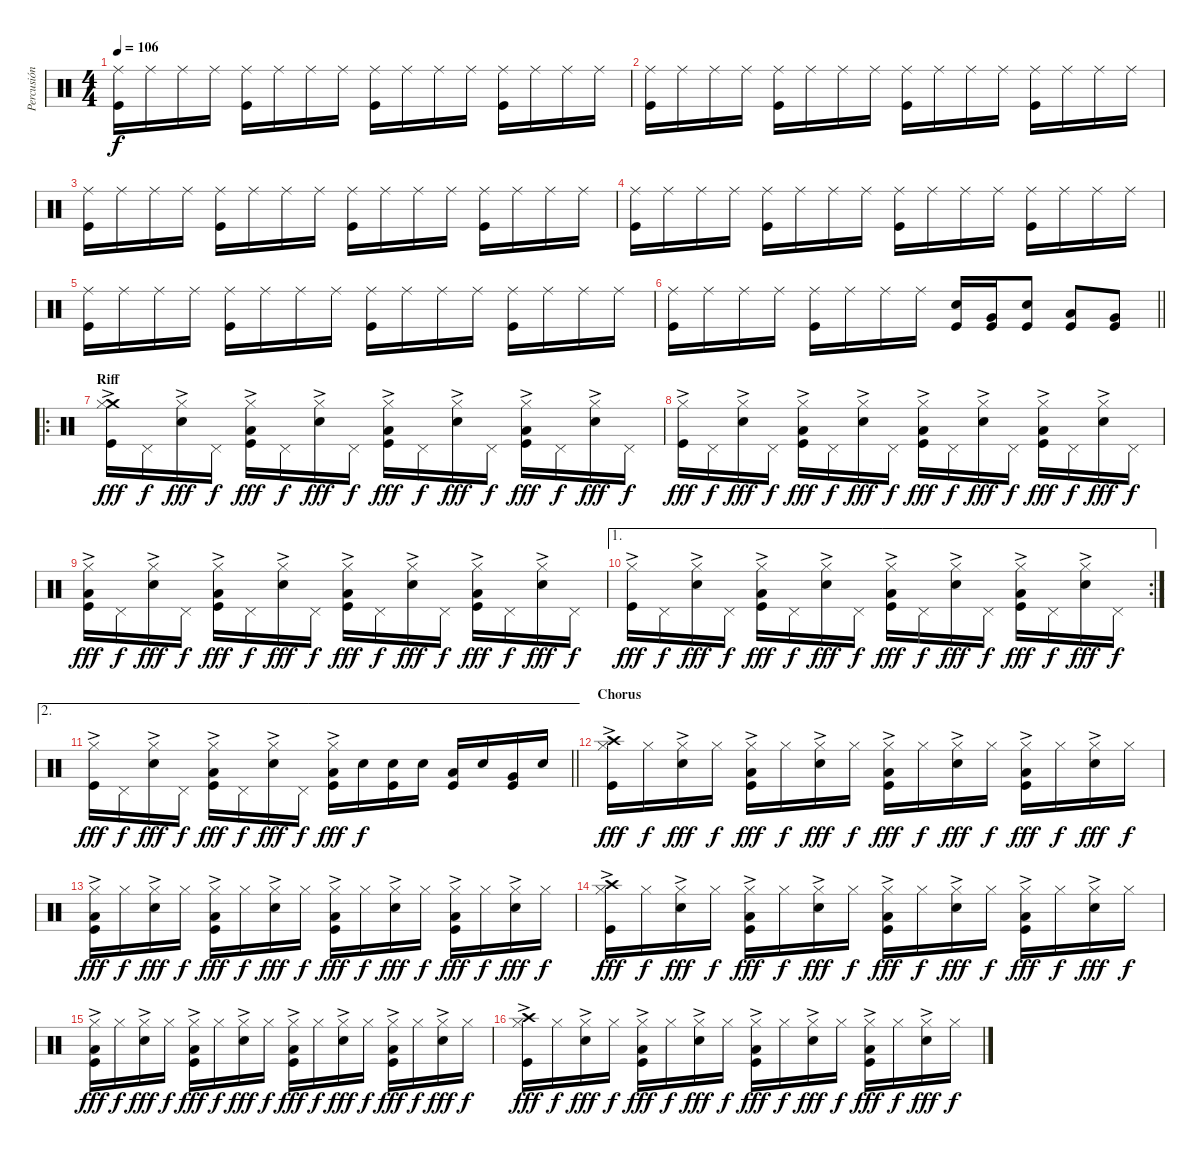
\track ("Percusión" "Percusión") {instrument percussion}
\staff {score}
\articulation defaults
\ts (4 4)
\tempo 106
\clef neutral
\ks c
("Ride (middle)" "Kick (hit)").16{dy f} "Ride (middle)".16 "Ride (middle)".16 "Ride (middle)".16 ("Ride (middle)" "Kick (hit)").16 "Ride (middle)".16 "Ride (middle)".16 "Ride (middle)".16 ("Ride (middle)" "Kick (hit)").16 "Ride (middle)".16 "Ride (middle)".16 "Ride (middle)".16 ("Ride (middle)" "Kick (hit)").16 "Ride (middle)".16 "Ride (middle)".16 "Ride (middle)".16 |
("Ride (middle)" "Kick (hit)").16 "Ride (middle)".16 "Ride (middle)".16 "Ride (middle)".16 ("Ride (middle)" "Kick (hit)").16 "Ride (middle)".16 "Ride (middle)".16 "Ride (middle)".16 ("Ride (middle)" "Kick (hit)").16 "Ride (middle)".16 "Ride (middle)".16 "Ride (middle)".16 ("Ride (middle)" "Kick (hit)").16 "Ride (middle)".16 "Ride (middle)".16 "Ride (middle)".16 |
("Ride (middle)" "Kick (hit)").16 "Ride (middle)".16 "Ride (middle)".16 "Ride (middle)".16 ("Ride (middle)" "Kick (hit)").16 "Ride (middle)".16 "Ride (middle)".16 "Ride (middle)".16 ("Ride (middle)" "Kick (hit)").16 "Ride (middle)".16 "Ride (middle)".16 "Ride (middle)".16 ("Ride (middle)" "Kick (hit)").16 "Ride (middle)".16 "Ride (middle)".16 "Ride (middle)".16 |
("Ride (middle)" "Kick (hit)").16 "Ride (middle)".16 "Ride (middle)".16 "Ride (middle)".16 ("Ride (middle)" "Kick (hit)").16 "Ride (middle)".16 "Ride (middle)".16 "Ride (middle)".16 ("Ride (middle)" "Kick (hit)").16 "Ride (middle)".16 "Ride (middle)".16 "Ride (middle)".16 ("Ride (middle)" "Kick (hit)").16 "Ride (middle)".16 "Ride (middle)".16 "Ride (middle)".16 |
("Ride (middle)" "Kick (hit)").16 "Ride (middle)".16 "Ride (middle)".16 "Ride (middle)".16 ("Ride (middle)" "Kick (hit)").16 "Ride (middle)".16 "Ride (middle)".16 "Ride (middle)".16 ("Ride (middle)" "Kick (hit)").16 "Ride (middle)".16 "Ride (middle)".16 "Ride (middle)".16 ("Ride (middle)" "Kick (hit)").16 "Ride (middle)".16 "Ride (middle)".16 "Ride (middle)".16 |
\barLineRight lightlight
("Ride (middle)" "Kick (hit)").16 "Ride (middle)".16 "Ride (middle)".16 "Ride (middle)".16 ("Ride (middle)" "Kick (hit)").16 "Ride (middle)".16 "Ride (middle)".16 "Ride (middle)".16 ("Snare (hit) 2" "Kick (hit)").16 ("Very Low Tom (hit)" "Kick (hit)").16 ("Snare (hit) 2" "Kick (hit)").8 ("Low Tom (hit)" "Kick (hit)").8 ("Very Low Tom (hit)" "Kick (hit)").8 |
\ro
\section ("" "Riff")
("Crash medium (hit)"{ac} "Hi-Hat (closed)"{ac} "Kick (hit)").16{dy fff} "Pedal Hi-Hat (hit)".16{dy f} ("Hi-Hat (closed)"{ac} "Snare (hit) 2").16{dy fff} "Pedal Hi-Hat (hit)".16{dy f} ("Low Tom (hit)" "Hi-Hat (closed)"{ac} "Kick (hit)").16{dy fff} "Pedal Hi-Hat (hit)".16{dy f} ("Hi-Hat (closed)"{ac} "Snare (hit) 2").16{dy fff} "Pedal Hi-Hat (hit)".16{dy f} ("Low Tom (hit)" "Hi-Hat (closed)"{ac} "Kick (hit)").16{dy fff} "Pedal Hi-Hat (hit)".16{dy f} ("Hi-Hat (closed)"{ac} "Snare (hit) 2").16{dy fff} "Pedal Hi-Hat (hit)".16{dy f} ("Low Tom (hit)" "Hi-Hat (closed)"{ac} "Kick (hit)").16{dy fff} "Pedal Hi-Hat (hit)".16{dy f} ("Hi-Hat (closed)"{ac} "Snare (hit) 2").16{dy fff} "Pedal Hi-Hat (hit)".16{dy f} |
("Hi-Hat (closed)"{ac} "Kick (hit)").16{dy fff} "Pedal Hi-Hat (hit)".16{dy f} ("Hi-Hat (closed)"{ac} "Snare (hit) 2").16{dy fff} "Pedal Hi-Hat (hit)".16{dy f} ("Low Tom (hit)" "Hi-Hat (closed)"{ac} "Kick (hit)").16{dy fff} "Pedal Hi-Hat (hit)".16{dy f} ("Hi-Hat (closed)"{ac} "Snare (hit) 2").16{dy fff} "Pedal Hi-Hat (hit)".16{dy f} ("Low Tom (hit)" "Hi-Hat (closed)"{ac} "Kick (hit)").16{dy fff} "Pedal Hi-Hat (hit)".16{dy f} ("Hi-Hat (closed)"{ac} "Snare (hit) 2").16{dy fff} "Pedal Hi-Hat (hit)".16{dy f} ("Low Tom (hit)" "Hi-Hat (closed)"{ac} "Kick (hit)").16{dy fff} "Pedal Hi-Hat (hit)".16{dy f} ("Hi-Hat (closed)"{ac} "Snare (hit) 2").16{dy fff} "Pedal Hi-Hat (hit)".16{dy f} |
("Low Tom (hit)" "Hi-Hat (closed)"{ac} "Kick (hit)").16{dy fff} "Pedal Hi-Hat (hit)".16{dy f} ("Hi-Hat (closed)"{ac} "Snare (hit) 2").16{dy fff} "Pedal Hi-Hat (hit)".16{dy f} ("Low Tom (hit)" "Hi-Hat (closed)"{ac} "Kick (hit)").16{dy fff} "Pedal Hi-Hat (hit)".16{dy f} ("Hi-Hat (closed)"{ac} "Snare (hit) 2").16{dy fff} "Pedal Hi-Hat (hit)".16{dy f} ("Low Tom (hit)" "Hi-Hat (closed)"{ac} "Kick (hit)").16{dy fff} "Pedal Hi-Hat (hit)".16{dy f} ("Hi-Hat (closed)"{ac} "Snare (hit) 2").16{dy fff} "Pedal Hi-Hat (hit)".16{dy f} ("Low Tom (hit)" "Hi-Hat (closed)"{ac} "Kick (hit)").16{dy fff} "Pedal Hi-Hat (hit)".16{dy f} ("Hi-Hat (closed)"{ac} "Snare (hit) 2").16{dy fff} "Pedal Hi-Hat (hit)".16{dy f} |
\ae 1
\rc 2
("Hi-Hat (closed)"{ac} "Kick (hit)").16{dy fff} "Pedal Hi-Hat (hit)".16{dy f} ("Hi-Hat (closed)"{ac} "Snare (hit) 2").16{dy fff} "Pedal Hi-Hat (hit)".16{dy f} ("Low Tom (hit)" "Hi-Hat (closed)"{ac} "Kick (hit)").16{dy fff} "Pedal Hi-Hat (hit)".16{dy f} ("Hi-Hat (closed)"{ac} "Snare (hit) 2").16{dy fff} "Pedal Hi-Hat (hit)".16{dy f} ("Low Tom (hit)" "Hi-Hat (closed)"{ac} "Kick (hit)").16{dy fff} "Pedal Hi-Hat (hit)".16{dy f} ("Hi-Hat (closed)"{ac} "Snare (hit) 2").16{dy fff} "Pedal Hi-Hat (hit)".16{dy f} ("Low Tom (hit)" "Hi-Hat (closed)"{ac} "Kick (hit)").16{dy fff} "Pedal Hi-Hat (hit)".16{dy f} ("Hi-Hat (closed)"{ac} "Snare (hit) 2").16{dy fff} "Pedal Hi-Hat (hit)".16{dy f} |
\ae 2
\barLineRight lightlight
("Hi-Hat (closed)"{ac} "Kick (hit)").16{dy fff} "Pedal Hi-Hat (hit)".16{dy f} ("Hi-Hat (closed)"{ac} "Snare (hit) 2").16{dy fff} "Pedal Hi-Hat (hit)".16{dy f} ("Low Tom (hit)" "Hi-Hat (closed)"{ac} "Kick (hit)").16{dy fff} "Pedal Hi-Hat (hit)".16{dy f} ("Hi-Hat (closed)"{ac} "Snare (hit) 2").16{dy fff} "Pedal Hi-Hat (hit)".16{dy f} ("Low Tom (hit)" "Hi-Hat (closed)"{ac} "Kick (hit)").16{dy fff} "Snare (hit) 2".16{dy f} ("Snare (hit) 2" "Kick (hit)").16 "Snare (hit) 2".16 ("Low Tom (hit)" "Kick (hit)").16 "Snare (hit) 2".16 ("Very Low Tom (hit)" "Kick (hit)").16 "Snare (hit) 2".16 |
\section ("" "Chorus")
("Crash high (hit)"{ac} "Hi-Hat (closed)"{ac} "Kick (hit)").16{dy fff} "Hi-Hat (closed)".16{dy f} ("Hi-Hat (closed)"{ac} "Snare (hit) 2").16{dy fff} "Hi-Hat (closed)".16{dy f} ("Low Tom (hit)" "Hi-Hat (closed)"{ac} "Kick (hit)").16{dy fff} "Hi-Hat (closed)".16{dy f} ("Hi-Hat (closed)"{ac} "Snare (hit) 2").16{dy fff} "Hi-Hat (closed)".16{dy f} ("Low Tom (hit)" "Hi-Hat (closed)"{ac} "Kick (hit)").16{dy fff} "Hi-Hat (closed)".16{dy f} ("Hi-Hat (closed)"{ac} "Snare (hit) 2").16{dy fff} "Hi-Hat (closed)".16{dy f} ("Low Tom (hit)" "Hi-Hat (closed)"{ac} "Kick (hit)").16{dy fff} "Hi-Hat (closed)".16{dy f} ("Hi-Hat (closed)"{ac} "Snare (hit) 2").16{dy fff} "Hi-Hat (closed)".16{dy f} |
("Low Tom (hit)" "Hi-Hat (closed)"{ac} "Kick (hit)").16{dy fff} "Hi-Hat (closed)".16{dy f} ("Hi-Hat (closed)"{ac} "Snare (hit) 2").16{dy fff} "Hi-Hat (closed)".16{dy f} ("Low Tom (hit)" "Hi-Hat (closed)"{ac} "Kick (hit)").16{dy fff} "Hi-Hat (closed)".16{dy f} ("Hi-Hat (closed)"{ac} "Snare (hit) 2").16{dy fff} "Hi-Hat (closed)".16{dy f} ("Low Tom (hit)" "Hi-Hat (closed)"{ac} "Kick (hit)").16{dy fff} "Hi-Hat (closed)".16{dy f} ("Hi-Hat (closed)"{ac} "Snare (hit) 2").16{dy fff} "Hi-Hat (closed)".16{dy f} ("Low Tom (hit)" "Hi-Hat (closed)"{ac} "Kick (hit)").16{dy fff} "Hi-Hat (closed)".16{dy f} ("Hi-Hat (closed)"{ac} "Snare (hit) 2").16{dy fff} "Hi-Hat (closed)".16{dy f} |
("Crash high (hit)"{ac} "Hi-Hat (closed)"{ac} "Kick (hit)").16{dy fff} "Hi-Hat (closed)".16{dy f} ("Hi-Hat (closed)"{ac} "Snare (hit) 2").16{dy fff} "Hi-Hat (closed)".16{dy f} ("Low Tom (hit)" "Hi-Hat (closed)"{ac} "Kick (hit)").16{dy fff} "Hi-Hat (closed)".16{dy f} ("Hi-Hat (closed)"{ac} "Snare (hit) 2").16{dy fff} "Hi-Hat (closed)".16{dy f} ("Low Tom (hit)" "Hi-Hat (closed)"{ac} "Kick (hit)").16{dy fff} "Hi-Hat (closed)".16{dy f} ("Hi-Hat (closed)"{ac} "Snare (hit) 2").16{dy fff} "Hi-Hat (closed)".16{dy f} ("Low Tom (hit)" "Hi-Hat (closed)"{ac} "Kick (hit)").16{dy fff} "Hi-Hat (closed)".16{dy f} ("Hi-Hat (closed)"{ac} "Snare (hit) 2").16{dy fff} "Hi-Hat (closed)".16{dy f} |
("Low Tom (hit)" "Hi-Hat (closed)"{ac} "Kick (hit)").16{dy fff} "Hi-Hat (closed)".16{dy f} ("Hi-Hat (closed)"{ac} "Snare (hit) 2").16{dy fff} "Hi-Hat (closed)".16{dy f} ("Low Tom (hit)" "Hi-Hat (closed)"{ac} "Kick (hit)").16{dy fff} "Hi-Hat (closed)".16{dy f} ("Hi-Hat (closed)"{ac} "Snare (hit) 2").16{dy fff} "Hi-Hat (closed)".16{dy f} ("Low Tom (hit)" "Hi-Hat (closed)"{ac} "Kick (hit)").16{dy fff} "Hi-Hat (closed)".16{dy f} ("Hi-Hat (closed)"{ac} "Snare (hit) 2").16{dy fff} "Hi-Hat (closed)".16{dy f} ("Low Tom (hit)" "Hi-Hat (closed)"{ac} "Kick (hit)").16{dy fff} "Hi-Hat (closed)".16{dy f} ("Hi-Hat (closed)"{ac} "Snare (hit) 2").16{dy fff} "Hi-Hat (closed)".16{dy f} |
("Crash high (hit)"{ac} "Hi-Hat (closed)"{ac} "Kick (hit)").16{dy fff} "Hi-Hat (closed)".16{dy f} ("Hi-Hat (closed)"{ac} "Snare (hit) 2").16{dy fff} "Hi-Hat (closed)".16{dy f} ("Low Tom (hit)" "Hi-Hat (closed)"{ac} "Kick (hit)").16{dy fff} "Hi-Hat (closed)".16{dy f} ("Hi-Hat (closed)"{ac} "Snare (hit) 2").16{dy fff} "Hi-Hat (closed)".16{dy f} ("Low Tom (hit)" "Hi-Hat (closed)"{ac} "Kick (hit)").16{dy fff} "Hi-Hat (closed)".16{dy f} ("Hi-Hat (closed)"{ac} "Snare (hit) 2").16{dy fff} "Hi-Hat (closed)".16{dy f} ("Low Tom (hit)" "Hi-Hat (closed)"{ac} "Kick (hit)").16{dy fff} "Hi-Hat (closed)".16{dy f} ("Hi-Hat (closed)"{ac} "Snare (hit) 2").16{dy fff} "Hi-Hat (closed)".16{dy f}
